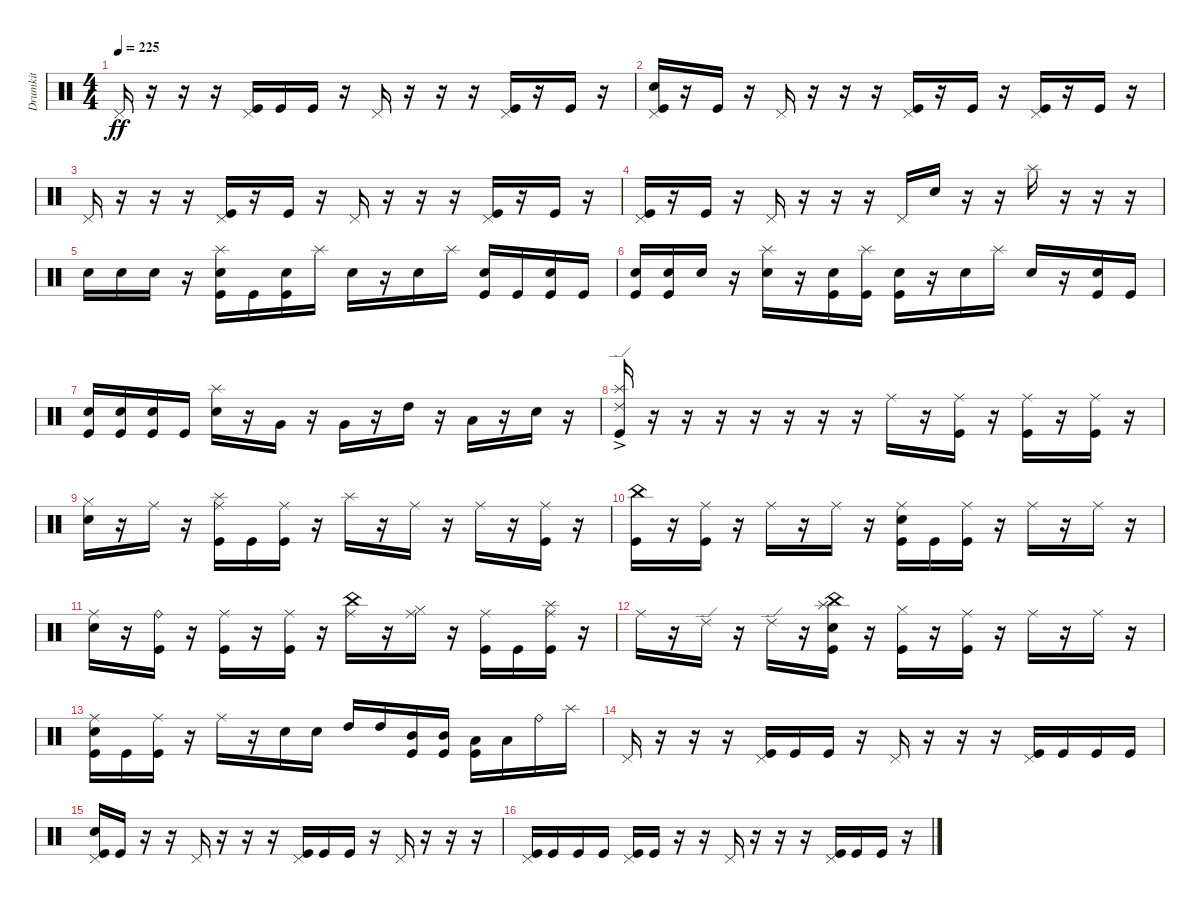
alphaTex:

\track ("Drumkit" "Drumkit") {instrument percussion}
\staff {score}
\articulation defaults
\ts (4 4)
\tempo 225
\clef neutral
\ks c "Pedal Hi-Hat (hit)".16{dy ff}
r.16 r.16 r.16 ("Pedal Hi-Hat (hit)" "Kick (hit)").16 "Kick (hit)".16 "Kick (hit)".16 r.16 "Pedal Hi-Hat (hit)".16 r.16 r.16 r.16 ("Pedal Hi-Hat (hit)" "Kick (hit)").16 r.16 "Kick (hit)".16 r.16 |
("Pedal Hi-Hat (hit)" "Kick (hit)" "Snare (hit) 2").16 r.16 "Kick (hit)".16 r.16 "Pedal Hi-Hat (hit)".16 r.16 r.16 r.16 ("Pedal Hi-Hat (hit)" "Kick (hit)").16 r.16 "Kick (hit)".16 r.16 ("Pedal Hi-Hat (hit)" "Kick (hit)").16 r.16 "Kick (hit)".16 r.16 |
"Pedal Hi-Hat (hit)".16 r.16 r.16 r.16 ("Pedal Hi-Hat (hit)" "Kick (hit)").16 r.16 "Kick (hit)".16 r.16 "Pedal Hi-Hat (hit)".16 r.16 r.16 r.16 ("Pedal Hi-Hat (hit)" "Kick (hit)").16 r.16 "Kick (hit)".16 r.16 |
("Pedal Hi-Hat (hit)" "Kick (hit)").16 r.16 "Kick (hit)".16 r.16 "Pedal Hi-Hat (hit)".16 r.16 r.16 r.16 "Pedal Hi-Hat (hit)".16 "Snare (hit) 2".16 r.16 r.16 "Splash (hit)".16 r.16 r.16 r.16 |
"Snare (hit) 2".16 "Snare (hit) 2".16 "Snare (hit) 2".16 r.16 ("Snare (hit) 2" "Splash (hit)" "Kick (hit)").16 "Kick (hit)".16 ("Snare (hit) 2" "Kick (hit)").16 "Splash (hit)".16 "Snare (hit) 2".16 r.16 "Snare (hit) 2".16 "Splash (hit)".16 ("Snare (hit) 2" "Kick (hit)").16 "Kick (hit)".16 ("Snare (hit) 2" "Kick (hit)").16 "Kick (hit)".16 |
("Snare (hit) 2" "Kick (hit)").16 ("Snare (hit) 2" "Kick (hit)").16 "Snare (hit) 2".16 r.16 ("Snare (hit) 2" "Splash (hit)").16 r.16 ("Snare (hit) 2" "Kick (hit)").16 ("Splash (hit)" "Kick (hit)").16 ("Snare (hit) 2" "Kick (hit)").16 r.16 "Snare (hit) 2".16 "Splash (hit)".16 "Snare (hit) 2".16 r.16 ("Snare (hit) 2" "Kick (hit)").16 "Kick (hit)".16 |
("Snare (hit) 2" "Kick (hit)").16 ("Snare (hit) 2" "Kick (hit)").16 ("Snare (hit) 2" "Kick (hit)").16 "Kick (hit)".16 ("Snare (hit) 2" "Splash (hit)").16 r.16 "Very Low Tom (hit)".16 r.16 "Very Low Tom (hit)".16 r.16 "High Tom (hit)".16 r.16 "Low Tom (hit)".16 r.16 "Snare (hit) 2".16 r.16 |
("Splash (hit)"{ac} "Ride (edge) 2"{ac} "Kick (hit)").16 r.16 r.16 r.16 r.16 r.16 r.16 r.16 "Ride (middle)".16 r.16 ("Ride (middle)" "Kick (hit)").16 r.16 ("Ride (middle)" "Kick (hit)").16 r.16 ("Ride (middle)" "Kick (hit)").16 r.16 |
("Hi-Hat (closed)" "Snare (hit) 2").16 r.16 "Ride (middle)".16 r.16 ("Ride (middle)" "Kick (hit)" "Splash (hit)").16 "Kick (hit)".16 ("Ride (middle)" "Kick (hit)").16 r.16 "Splash (hit)".16 r.16 "Ride (middle)".16 r.16 "Ride (middle)".16 r.16 ("Ride (middle)" "Kick (hit)").16 r.16 |
("Kick (hit)" "China (hit)").16 r.16 ("Ride (middle)" "Kick (hit)").16 r.16 "Ride (middle)".16 r.16 "Ride (middle)".16 r.16 ("Ride (middle)" "Kick (hit)" "Snare (hit) 2").16 "Kick (hit)".16 ("Ride (middle)" "Kick (hit)").16 r.16 "Ride (middle)".16 r.16 "Ride (middle)".16 r.16 |
("Ride (middle)" "Snare (hit) 2").16 r.16 ("Ride (bell)" "Kick (hit)").16 r.16 ("Ride (middle)" "Kick (hit)").16 r.16 ("Ride (middle)" "Kick (hit)").16 r.16 ("Ride (middle)" "China (hit)").16 r.16 ("Ride (middle)" "Hi-Hat (closed)").16 r.16 ("Ride (middle)" "Kick (hit)").16 "Kick (hit)".16 ("Ride (middle)" "Kick (hit)" "Splash (hit)").16 r.16 |
"Ride (middle)".16 r.16 "Ride (edge) 2".16 r.16 "Ride (edge) 2".16 r.16 ("Kick (hit)" "Snare (hit) 2" "Splash (hit)" "China (hit)").16 r.16 ("Kick (hit)" "Hi-Hat (closed)").16 r.16 ("Ride (middle)" "Kick (hit)").16 r.16 "Ride (middle)".16 r.16 "Ride (middle)".16 r.16 |
("Kick (hit)" "Snare (hit) 2" "Ride (middle)").16 "Kick (hit)".16 ("Kick (hit)" "Ride (middle)").16 r.16 "Ride (middle)".16 r.16 "Snare (hit) 2".16 "Snare (hit) 2".16 "High Tom (hit)".16 "High Tom (hit)".16 ("Kick (hit)" "Mid Tom (hit)").16 ("Mid Tom (hit)" "Kick (hit)").16 ("Kick (hit)" "Low Tom (hit)").16 "Low Tom (hit)".16 "Ride (bell)".16 "Splash (hit)".16 |
"Pedal Hi-Hat (hit)".16 r.16 r.16 r.16 ("Pedal Hi-Hat (hit)" "Kick (hit)").16 "Kick (hit)".16 "Kick (hit)".16 r.16 "Pedal Hi-Hat (hit)".16 r.16 r.16 r.16 ("Pedal Hi-Hat (hit)" "Kick (hit)").16 "Kick (hit)".16 "Kick (hit)".16 "Kick (hit)".16 |
("Pedal Hi-Hat (hit)" "Kick (hit)" "Snare (hit) 2").16 "Kick (hit)".16 r.16 r.16 "Pedal Hi-Hat (hit)".16 r.16 r.16 r.16 ("Pedal Hi-Hat (hit)" "Kick (hit)").16 "Kick (hit)".16 "Kick (hit)".16 r.16 "Pedal Hi-Hat (hit)".16 r.16 r.16 r.16 |
("Pedal Hi-Hat (hit)" "Kick (hit)").16 "Kick (hit)".16 "Kick (hit)".16 "Kick (hit)".16 ("Pedal Hi-Hat (hit)" "Kick (hit)").16 "Kick (hit)".16 r.16 r.16 "Pedal Hi-Hat (hit)".16 r.16 r.16 r.16 ("Pedal Hi-Hat (hit)" "Kick (hit)").16 "Kick (hit)".16 "Kick (hit)".16 r.16
